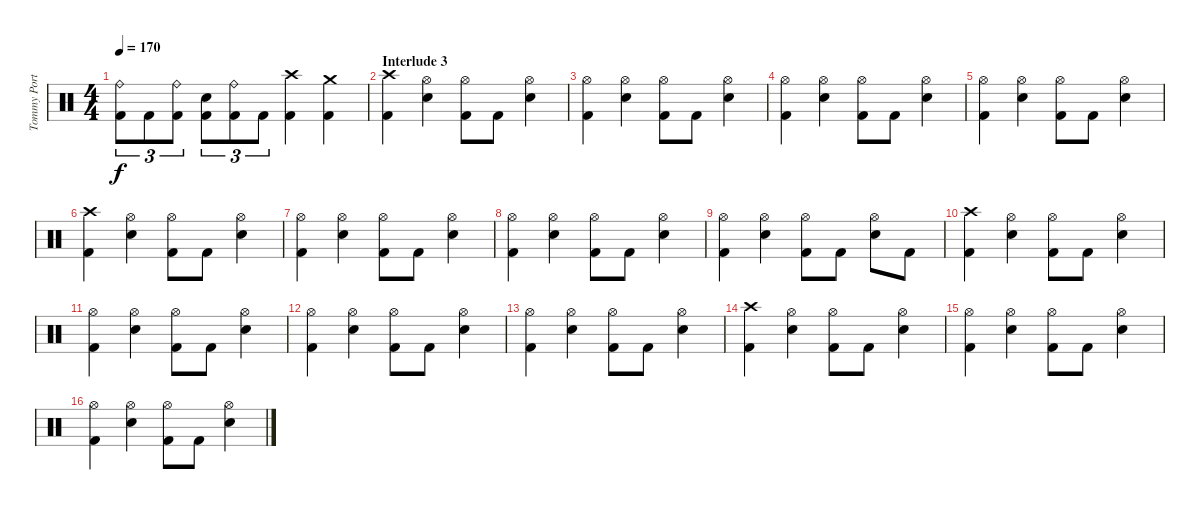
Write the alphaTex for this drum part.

\track ("Tommy Portimo" "Tommy Port") {instrument percussion}
\staff {score}
\articulation defaults
\ts (4 4)
\tempo 170
\clef neutral
\ks c
("Ride (bell)" "Kick (hit) 2").8{tu (3 2) dy f} "Kick (hit) 2".8{tu (3 2)} ("Ride (bell)" "Kick (hit) 2").8{tu (3 2)} ("Snare (hit) 2" "Kick (hit) 2").8{tu (3 2)} ("Ride (bell)" "Kick (hit) 2").8{tu (3 2)} "Kick (hit) 2".8{tu (3 2)} ("Crash high (hit)" "Kick (hit) 2").4 ("Crash medium (hit)" "Kick (hit) 2").4 |
\section ("" "Interlude 3")
("Crash high (hit)" "Kick (hit) 2").4 ("Hi-Hat (open)" "Snare (hit) 2").4 ("Hi-Hat (open)" "Kick (hit) 2").8 "Kick (hit) 2".8 ("Hi-Hat (open)" "Snare (hit) 2").4 |
("Hi-Hat (open)" "Kick (hit) 2").4 ("Hi-Hat (open)" "Snare (hit) 2").4 ("Hi-Hat (open)" "Kick (hit) 2").8 "Kick (hit) 2".8 ("Hi-Hat (open)" "Snare (hit) 2").4 |
("Hi-Hat (open)" "Kick (hit) 2").4 ("Hi-Hat (open)" "Snare (hit) 2").4 ("Hi-Hat (open)" "Kick (hit) 2").8 "Kick (hit) 2".8 ("Hi-Hat (open)" "Snare (hit) 2").4 |
("Hi-Hat (open)" "Kick (hit) 2").4 ("Hi-Hat (open)" "Snare (hit) 2").4 ("Hi-Hat (open)" "Kick (hit) 2").8 "Kick (hit) 2".8 ("Hi-Hat (open)" "Snare (hit) 2").4 |
("Crash high (hit)" "Kick (hit) 2").4 ("Hi-Hat (open)" "Snare (hit) 2").4 ("Hi-Hat (open)" "Kick (hit) 2").8 "Kick (hit) 2".8 ("Hi-Hat (open)" "Snare (hit) 2").4 |
("Hi-Hat (open)" "Kick (hit) 2").4 ("Hi-Hat (open)" "Snare (hit) 2").4 ("Hi-Hat (open)" "Kick (hit) 2").8 "Kick (hit) 2".8 ("Hi-Hat (open)" "Snare (hit) 2").4 |
("Hi-Hat (open)" "Kick (hit) 2").4 ("Hi-Hat (open)" "Snare (hit) 2").4 ("Hi-Hat (open)" "Kick (hit) 2").8 "Kick (hit) 2".8 ("Hi-Hat (open)" "Snare (hit) 2").4 |
("Hi-Hat (open)" "Kick (hit) 2").4 ("Hi-Hat (open)" "Snare (hit) 2").4 ("Hi-Hat (open)" "Kick (hit) 2").8 "Kick (hit) 2".8 ("Hi-Hat (open)" "Snare (hit) 2").8 "Kick (hit) 2".8 |
("Crash high (hit)" "Kick (hit) 2").4 ("Hi-Hat (open)" "Snare (hit) 2").4 ("Hi-Hat (open)" "Kick (hit) 2").8 "Kick (hit) 2".8 ("Hi-Hat (open)" "Snare (hit) 2").4 |
("Hi-Hat (open)" "Kick (hit) 2").4 ("Hi-Hat (open)" "Snare (hit) 2").4 ("Hi-Hat (open)" "Kick (hit) 2").8 "Kick (hit) 2".8 ("Hi-Hat (open)" "Snare (hit) 2").4 |
("Hi-Hat (open)" "Kick (hit) 2").4 ("Hi-Hat (open)" "Snare (hit) 2").4 ("Hi-Hat (open)" "Kick (hit) 2").8 "Kick (hit) 2".8 ("Hi-Hat (open)" "Snare (hit) 2").4 |
("Hi-Hat (open)" "Kick (hit) 2").4 ("Hi-Hat (open)" "Snare (hit) 2").4 ("Hi-Hat (open)" "Kick (hit) 2").8 "Kick (hit) 2".8 ("Hi-Hat (open)" "Snare (hit) 2").4 |
("Crash high (hit)" "Kick (hit) 2").4 ("Hi-Hat (open)" "Snare (hit) 2").4 ("Hi-Hat (open)" "Kick (hit) 2").8 "Kick (hit) 2".8 ("Hi-Hat (open)" "Snare (hit) 2").4 |
("Hi-Hat (open)" "Kick (hit) 2").4 ("Hi-Hat (open)" "Snare (hit) 2").4 ("Hi-Hat (open)" "Kick (hit) 2").8 "Kick (hit) 2".8 ("Hi-Hat (open)" "Snare (hit) 2").4 |
("Hi-Hat (open)" "Kick (hit) 2").4 ("Hi-Hat (open)" "Snare (hit) 2").4 ("Hi-Hat (open)" "Kick (hit) 2").8 "Kick (hit) 2".8 ("Hi-Hat (open)" "Snare (hit) 2").4
